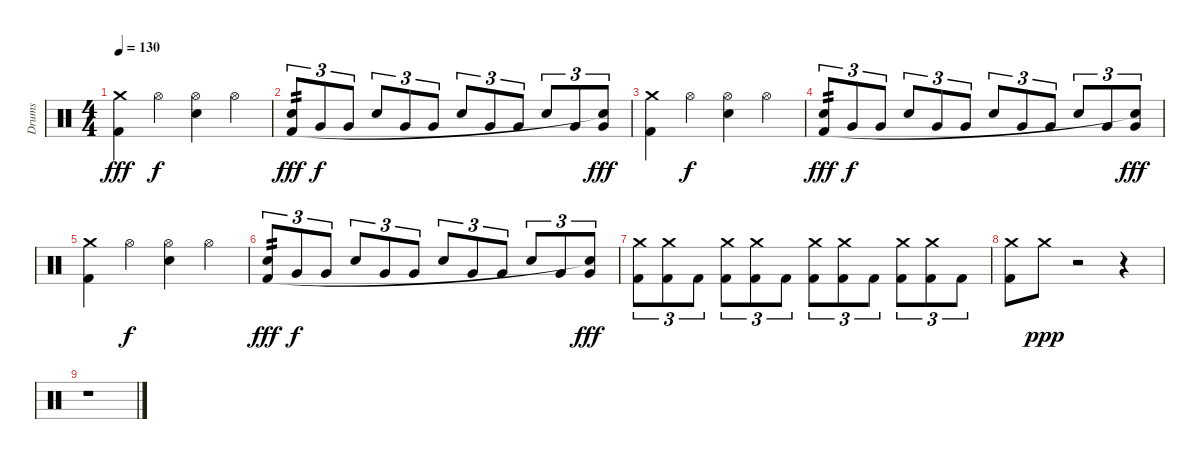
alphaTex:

\track ("Drums" "Drums") {instrument percussion}
\staff {score}
\articulation defaults
\ts (4 4)
\tempo 130
\clef neutral
\ks c
("Crash medium (hit)" "Kick (hit) 2").4{dy fff} "Hi-Hat (open)".4{dy f} ("Hi-Hat (open)" "Electric Snare (hit)").4 "Hi-Hat (open)".4 |
("Electric Snare (hit)" "Kick (hit) 2").8{tu (3 2) tp 2 dy fff} "Very Low Tom (hit)".8{tu (3 2) dy f} "Very Low Tom (hit)".8{tu (3 2)} "Electric Snare (hit)".8{tu (3 2)} "Very Low Tom (hit)".8{tu (3 2)} "Very Low Tom (hit)".8{tu (3 2)} "Electric Snare (hit)".8{tu (3 2)} "Very Low Tom (hit)".8{tu (3 2)} "Very Low Tom (hit)".8{tu (3 2)} "Electric Snare (hit)".8{tu (3 2)} "Very Low Tom (hit)".8{tu (3 2)} ("Very Low Tom (hit)" "Snare (hit)"{t}).8{tu (3 2) dy fff} |
("Crash medium (hit)" "Kick (hit) 2").4 "Hi-Hat (open)".4{dy f} ("Hi-Hat (open)" "Electric Snare (hit)").4 "Hi-Hat (open)".4 |
("Electric Snare (hit)" "Kick (hit) 2").8{tu (3 2) tp 2 dy fff} "Very Low Tom (hit)".8{tu (3 2) dy f} "Very Low Tom (hit)".8{tu (3 2)} "Electric Snare (hit)".8{tu (3 2)} "Very Low Tom (hit)".8{tu (3 2)} "Very Low Tom (hit)".8{tu (3 2)} "Electric Snare (hit)".8{tu (3 2)} "Very Low Tom (hit)".8{tu (3 2)} "Very Low Tom (hit)".8{tu (3 2)} "Electric Snare (hit)".8{tu (3 2)} "Very Low Tom (hit)".8{tu (3 2)} ("Very Low Tom (hit)" "Snare (hit)"{t}).8{tu (3 2) dy fff} |
("Crash medium (hit)" "Kick (hit) 2").4 "Hi-Hat (open)".4{dy f} ("Hi-Hat (open)" "Electric Snare (hit)").4 "Hi-Hat (open)".4 |
("Electric Snare (hit)" "Kick (hit) 2").8{tu (3 2) tp 2 dy fff} "Very Low Tom (hit)".8{tu (3 2) dy f} "Very Low Tom (hit)".8{tu (3 2)} "Electric Snare (hit)".8{tu (3 2)} "Very Low Tom (hit)".8{tu (3 2)} "Very Low Tom (hit)".8{tu (3 2)} "Electric Snare (hit)".8{tu (3 2)} "Very Low Tom (hit)".8{tu (3 2)} "Very Low Tom (hit)".8{tu (3 2)} "Electric Snare (hit)".8{tu (3 2)} "Very Low Tom (hit)".8{tu (3 2)} ("Very Low Tom (hit)" "Snare (hit)"{t}).8{tu (3 2) dy fff} |
("Crash medium (hit)" "Kick (hit) 2").8{tu (3 2)} ("Crash medium (hit)" "Kick (hit) 2").8{tu (3 2)} "Kick (hit) 2".8{tu (3 2)} ("Crash medium (hit)" "Kick (hit) 2").8{tu (3 2)} ("Crash medium (hit)" "Kick (hit) 2").8{tu (3 2)} "Kick (hit) 2".8{tu (3 2)} ("Crash medium (hit)" "Kick (hit) 2").8{tu (3 2)} ("Crash medium (hit)" "Kick (hit) 2").8{tu (3 2)} "Kick (hit) 2".8{tu (3 2)} ("Crash medium (hit)" "Kick (hit) 2").8{tu (3 2)} ("Crash medium (hit)" "Kick (hit) 2").8{tu (3 2)} "Kick (hit) 2".8{tu (3 2)} |
("Crash medium (hit)" "Kick (hit) 2").8 "Crash medium (hit)".8{dy ppp} r.2 r.4 |
r.1
